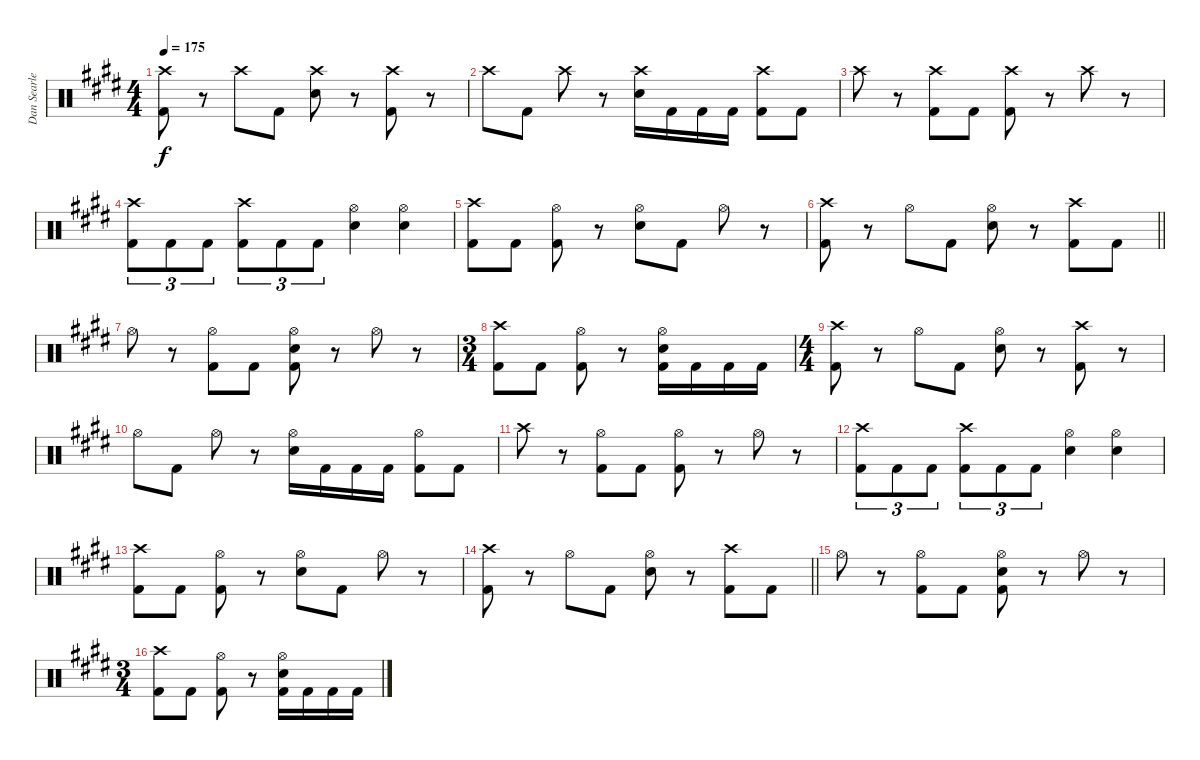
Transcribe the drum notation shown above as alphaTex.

\track ("Dan Searle" "Dan Searle") {instrument percussion}
\staff {score}
\articulation defaults
\ts (4 4)
\tempo 175
\clef neutral
\ks e
("Crash high (hit)" "Kick (hit) 2").8{dy f} r.8 "Crash high (hit)".8 "Kick (hit) 2".8 ("Crash high (hit)" "Snare (hit) 2").8 r.8 ("Crash high (hit)" "Kick (hit) 2").8 r.8 |
"Crash high (hit)".8 "Kick (hit) 2".8 "Crash high (hit)".8 r.8 ("Crash high (hit)" "Snare (hit) 2").16 "Kick (hit) 2".16 "Kick (hit) 2".16 "Kick (hit) 2".16 ("Crash high (hit)" "Kick (hit) 2").8 "Kick (hit) 2".8 |
"Crash high (hit)".8 r.8 ("Crash high (hit)" "Kick (hit) 2").8 "Kick (hit) 2".8 ("Crash high (hit)" "Kick (hit) 2").8 r.8 "Crash high (hit)".8 r.8 |
("Crash high (hit)" "Kick (hit) 2").8{tu (3 2)} "Kick (hit) 2".8{tu (3 2)} "Kick (hit) 2".8{tu (3 2)} ("Crash high (hit)" "Kick (hit) 2").8{tu (3 2)} "Kick (hit) 2".8{tu (3 2)} "Kick (hit) 2".8{tu (3 2)} ("Hi-Hat (open)" "Snare (hit) 2").4 ("Hi-Hat (open)" "Snare (hit) 2").4 |
("Crash high (hit)" "Kick (hit) 2").8 "Kick (hit) 2".8 ("Hi-Hat (open)" "Kick (hit) 2").8 r.8 ("Hi-Hat (open)" "Snare (hit) 2").8 "Kick (hit) 2".8 "Hi-Hat (open)".8 r.8 |
\barLineRight lightlight
("Crash high (hit)" "Kick (hit) 2").8 r.8 "Hi-Hat (open)".8 "Kick (hit) 2".8 ("Hi-Hat (open)" "Snare (hit) 2").8 r.8 ("Crash high (hit)" "Kick (hit) 2").8 "Kick (hit) 2".8 |
\section ("" "")
"Hi-Hat (open)".8 r.8 ("Hi-Hat (open)" "Kick (hit) 2").8 "Kick (hit) 2".8 ("Hi-Hat (open)" "Snare (hit) 2" "Kick (hit) 2").8 r.8 "Hi-Hat (open)".8 r.8 |
\ts (3 4)
("Crash high (hit)" "Kick (hit) 2").8 "Kick (hit) 2".8 ("Hi-Hat (open)" "Kick (hit) 2").8 r.8 ("Hi-Hat (open)" "Snare (hit) 2" "Kick (hit) 2").16 "Kick (hit) 2".16 "Kick (hit) 2".16 "Kick (hit) 2".16 |
\ts (4 4)
("Crash high (hit)" "Kick (hit) 2").8 r.8 "Hi-Hat (open)".8 "Kick (hit) 2".8 ("Hi-Hat (open)" "Snare (hit) 2").8 r.8 ("Crash high (hit)" "Kick (hit) 2").8 r.8 |
"Hi-Hat (open)".8 "Kick (hit) 2".8 "Hi-Hat (open)".8 r.8 ("Hi-Hat (open)" "Snare (hit) 2").16 "Kick (hit) 2".16 "Kick (hit) 2".16 "Kick (hit) 2".16 ("Hi-Hat (open)" "Kick (hit) 2").8 "Kick (hit) 2".8 |
"Crash high (hit)".8 r.8 ("Hi-Hat (open)" "Kick (hit) 2").8 "Kick (hit) 2".8 ("Hi-Hat (open)" "Kick (hit) 2").8 r.8 "Hi-Hat (open)".8 r.8 |
("Crash high (hit)" "Kick (hit) 2").8{tu (3 2)} "Kick (hit) 2".8{tu (3 2)} "Kick (hit) 2".8{tu (3 2)} ("Crash high (hit)" "Kick (hit) 2").8{tu (3 2)} "Kick (hit) 2".8{tu (3 2)} "Kick (hit) 2".8{tu (3 2)} ("Hi-Hat (open)" "Snare (hit) 2").4 ("Hi-Hat (open)" "Snare (hit) 2").4 |
("Crash high (hit)" "Kick (hit) 2").8 "Kick (hit) 2".8 ("Hi-Hat (open)" "Kick (hit) 2").8 r.8 ("Hi-Hat (open)" "Snare (hit) 2").8 "Kick (hit) 2".8 "Hi-Hat (open)".8 r.8 |
\barLineRight lightlight
("Crash high (hit)" "Kick (hit) 2").8 r.8 "Hi-Hat (open)".8 "Kick (hit) 2".8 ("Hi-Hat (open)" "Snare (hit) 2").8 r.8 ("Crash high (hit)" "Kick (hit) 2").8 "Kick (hit) 2".8 |
"Hi-Hat (open)".8 r.8 ("Hi-Hat (open)" "Kick (hit) 2").8 "Kick (hit) 2".8 ("Hi-Hat (open)" "Snare (hit) 2" "Kick (hit) 2").8 r.8 "Hi-Hat (open)".8 r.8 |
\ts (3 4)
("Crash high (hit)" "Kick (hit) 2").8 "Kick (hit) 2".8 ("Hi-Hat (open)" "Kick (hit) 2").8 r.8 ("Hi-Hat (open)" "Snare (hit) 2" "Kick (hit) 2").16 "Kick (hit) 2".16 "Kick (hit) 2".16 "Kick (hit) 2".16
